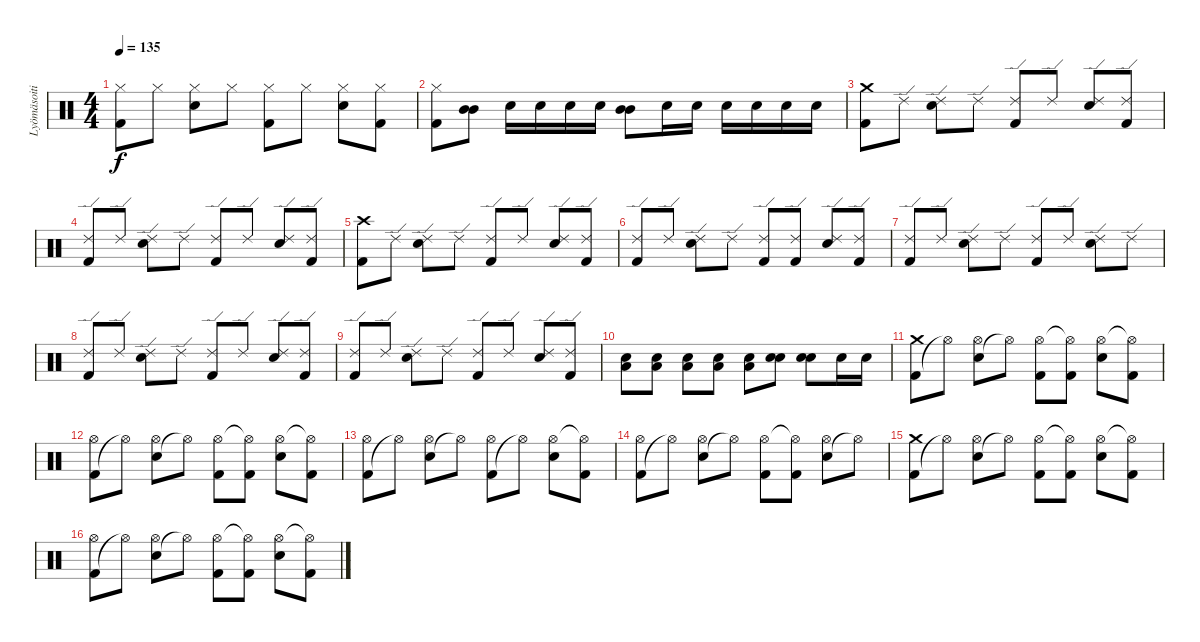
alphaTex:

\track ("Lyömäsoitin" "Lyömäsoiti") {instrument percussion}
\staff {score}
\articulation defaults
\ts (4 4)
\tempo 135
\clef neutral
\ks c
("Kick (hit) 2" "Hi-Hat (closed)").8{dy f} "Hi-Hat (closed)".8 ("Electric Snare (hit)" "Hi-Hat (closed)").8 "Hi-Hat (closed)".8 ("Kick (hit) 2" "Hi-Hat (closed)").8 "Hi-Hat (closed)".8 ("Electric Snare (hit)" "Hi-Hat (closed)").8 ("Kick (hit) 2" "Hi-Hat (closed)").8 |
("Kick (hit) 2" "Hi-Hat (closed)").8 ("Mid Tom (hit)" "Mid Tom (hit)").8 "Electric Snare (hit)".16 "Electric Snare (hit)".16 "Electric Snare (hit)".16 "Electric Snare (hit)".16 ("Mid Tom (hit)" "Mid Tom (hit)").8 "Electric Snare (hit)".16 "Electric Snare (hit)".16 "Electric Snare (hit)".16 "Electric Snare (hit)".16 "Electric Snare (hit)".16 "Electric Snare (hit)".16 |
("Kick (hit) 2" "Crash medium (hit)").8 "Ride (edge) 2".8 ("Electric Snare (hit)" "Ride (edge) 2").8 "Ride (edge) 2".8 ("Kick (hit) 2" "Ride (edge) 2").8 "Ride (edge) 2".8 ("Electric Snare (hit)" "Ride (edge) 2").8 ("Kick (hit) 2" "Ride (edge) 2").8 |
("Kick (hit) 2" "Ride (edge) 2").8 "Ride (edge) 2".8 ("Electric Snare (hit)" "Ride (edge) 2").8 "Ride (edge) 2".8 ("Kick (hit) 2" "Ride (edge) 2").8 "Ride (edge) 2".8 ("Electric Snare (hit)" "Ride (edge) 2").8 ("Kick (hit) 2" "Ride (edge) 2").8 |
("Kick (hit) 2" "Crash high (hit)").8 "Ride (edge) 2".8 ("Electric Snare (hit)" "Ride (edge) 2").8 "Ride (edge) 2".8 ("Kick (hit) 2" "Ride (edge) 2").8 "Ride (edge) 2".8 ("Electric Snare (hit)" "Ride (edge) 2").8 ("Kick (hit) 2" "Ride (edge) 2").8 |
("Kick (hit) 2" "Ride (edge) 2").8 "Ride (edge) 2".8 ("Electric Snare (hit)" "Ride (edge) 2").8 "Ride (edge) 2".8 ("Kick (hit) 2" "Ride (edge) 2").8 ("Kick (hit) 2" "Ride (edge) 2").8 ("Electric Snare (hit)" "Ride (edge) 2").8 ("Kick (hit) 2" "Ride (edge) 2").8 |
("Kick (hit) 2" "Ride (edge) 2").8 "Ride (edge) 2".8 ("Electric Snare (hit)" "Ride (edge) 2").8 "Ride (edge) 2".8 ("Kick (hit) 2" "Ride (edge) 2").8 "Ride (edge) 2".8 ("Electric Snare (hit)" "Ride (edge) 2").8 "Ride (edge) 2".8 |
("Kick (hit) 2" "Ride (edge) 2").8 "Ride (edge) 2".8 ("Electric Snare (hit)" "Ride (edge) 2").8 "Ride (edge) 2".8 ("Kick (hit) 2" "Ride (edge) 2").8 "Ride (edge) 2".8 ("Electric Snare (hit)" "Ride (edge) 2").8 ("Kick (hit) 2" "Ride (edge) 2").8 |
("Kick (hit) 2" "Ride (edge) 2").8 "Ride (edge) 2".8 ("Electric Snare (hit)" "Ride (edge) 2").8 "Ride (edge) 2".8 ("Kick (hit) 2" "Ride (edge) 2").8 "Ride (edge) 2".8 ("Electric Snare (hit)" "Ride (edge) 2").8 ("Kick (hit) 2" "Ride (edge) 2").8 |
("Low Tom (hit)" "Electric Snare (hit)").8 ("Low Tom (hit)" "Electric Snare (hit)").8 ("Low Tom (hit)" "Electric Snare (hit)").8 ("Low Tom (hit)" "Electric Snare (hit)").8 ("Low Tom (hit)" "Electric Snare (hit)").8 ("Electric Snare (hit)" "Electric Snare (hit)").8 ("Electric Snare (hit)" "Electric Snare (hit)").8 "Electric Snare (hit)".16 "Electric Snare (hit)".16 |
("Kick (hit) 2" "Crash medium (hit)").8 "Hi-Hat (open)"{t}.8 ("Electric Snare (hit)" "Hi-Hat (open)").8 "Hi-Hat (open)"{t}.8 ("Kick (hit) 2" "Hi-Hat (open)").8 ("Kick (hit) 2" "Hi-Hat (open)"{t}).8 ("Electric Snare (hit)" "Hi-Hat (open)").8 ("Kick (hit) 2" "Hi-Hat (open)"{t}).8 |
("Kick (hit) 2" "Hi-Hat (open)").8 "Hi-Hat (open)"{t}.8 ("Electric Snare (hit)" "Hi-Hat (open)").8 "Hi-Hat (open)"{t}.8 ("Kick (hit) 2" "Hi-Hat (open)").8 ("Kick (hit) 2" "Hi-Hat (open)"{t}).8 ("Electric Snare (hit)" "Hi-Hat (open)").8 ("Kick (hit) 2" "Hi-Hat (open)"{t}).8 |
("Kick (hit) 2" "Hi-Hat (open)").8 "Hi-Hat (open)"{t}.8 ("Electric Snare (hit)" "Hi-Hat (open)").8 "Hi-Hat (open)"{t}.8 ("Kick (hit) 2" "Hi-Hat (open)").8 "Hi-Hat (open)"{t}.8 ("Electric Snare (hit)" "Hi-Hat (open)").8 ("Kick (hit) 2" "Hi-Hat (open)"{t}).8 |
("Kick (hit) 2" "Hi-Hat (open)").8 "Hi-Hat (open)"{t}.8 ("Electric Snare (hit)" "Hi-Hat (open)").8 "Hi-Hat (open)"{t}.8 ("Kick (hit) 2" "Hi-Hat (open)").8 ("Kick (hit) 2" "Hi-Hat (open)"{t}).8 ("Electric Snare (hit)" "Hi-Hat (open)").8 "Hi-Hat (open)"{t}.8 |
("Kick (hit) 2" "Crash medium (hit)").8 "Hi-Hat (open)"{t}.8 ("Electric Snare (hit)" "Hi-Hat (open)").8 "Hi-Hat (open)"{t}.8 ("Kick (hit) 2" "Hi-Hat (open)").8 ("Kick (hit) 2" "Hi-Hat (open)"{t}).8 ("Electric Snare (hit)" "Hi-Hat (open)").8 ("Kick (hit) 2" "Hi-Hat (open)"{t}).8 |
("Kick (hit) 2" "Hi-Hat (open)").8 "Hi-Hat (open)"{t}.8 ("Electric Snare (hit)" "Hi-Hat (open)").8 "Hi-Hat (open)"{t}.8 ("Kick (hit) 2" "Hi-Hat (open)").8 ("Kick (hit) 2" "Hi-Hat (open)"{t}).8 ("Electric Snare (hit)" "Hi-Hat (open)").8 ("Kick (hit) 2" "Hi-Hat (open)"{t}).8
